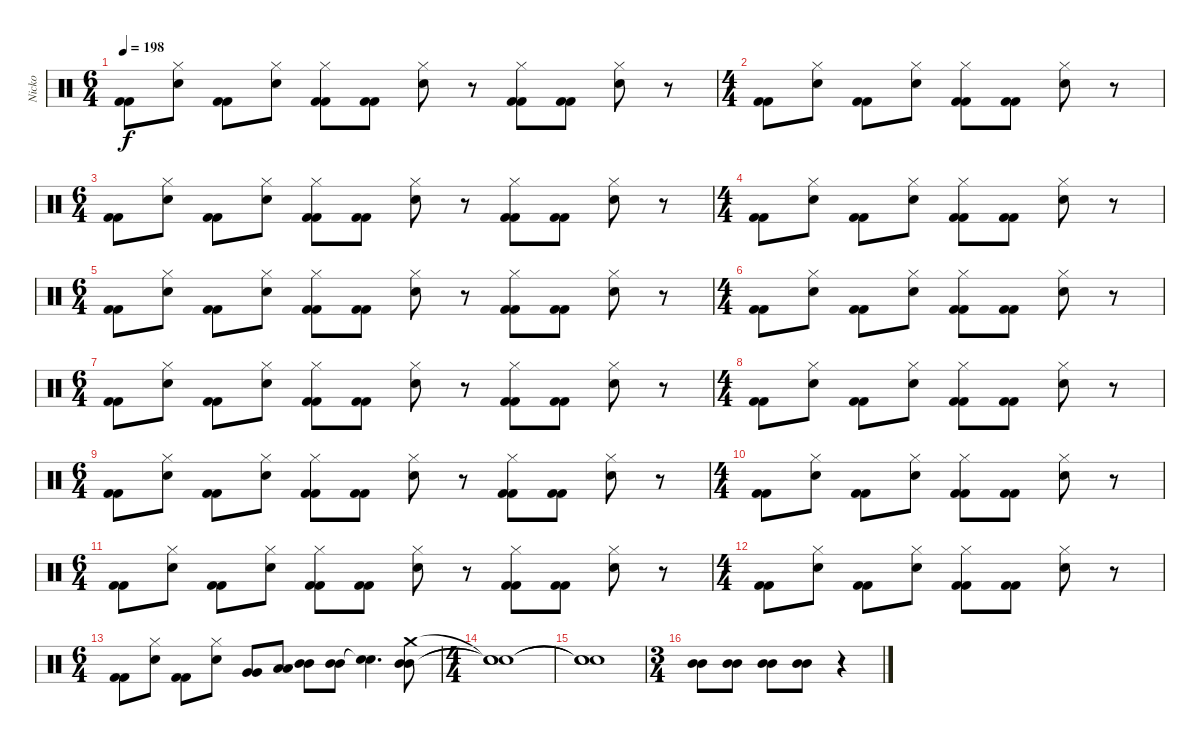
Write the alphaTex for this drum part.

\track ("Nicko" "Nicko") {instrument percussion}
\staff {score}
\articulation defaults
\ts (6 4)
\tempo 198
\clef neutral
\ks c
("Kick (hit) 2" "Kick (hit) 2").8{dy f} ("Hi-Hat (closed)" "Electric Snare (hit)").8 ("Kick (hit) 2" "Kick (hit) 2").8 ("Hi-Hat (closed)" "Electric Snare (hit)").8 ("Hi-Hat (closed)" "Kick (hit) 2" "Kick (hit) 2").8 ("Kick (hit) 2" "Kick (hit) 2").8 ("Hi-Hat (closed)" "Electric Snare (hit)").8 r.8 ("Hi-Hat (closed)" "Kick (hit) 2" "Kick (hit) 2").8 ("Kick (hit) 2" "Kick (hit) 2").8 ("Hi-Hat (closed)" "Electric Snare (hit)").8 r.8 |
\ts (4 4)
("Kick (hit) 2" "Kick (hit) 2").8 ("Hi-Hat (closed)" "Electric Snare (hit)").8 ("Kick (hit) 2" "Kick (hit) 2").8 ("Hi-Hat (closed)" "Electric Snare (hit)").8 ("Hi-Hat (closed)" "Kick (hit) 2" "Kick (hit) 2").8 ("Kick (hit) 2" "Kick (hit) 2").8 ("Hi-Hat (closed)" "Electric Snare (hit)").8 r.8 |
\ts (6 4)
("Kick (hit) 2" "Kick (hit) 2").8 ("Hi-Hat (closed)" "Electric Snare (hit)").8 ("Kick (hit) 2" "Kick (hit) 2").8 ("Hi-Hat (closed)" "Electric Snare (hit)").8 ("Hi-Hat (closed)" "Kick (hit) 2" "Kick (hit) 2").8 ("Kick (hit) 2" "Kick (hit) 2").8 ("Hi-Hat (closed)" "Electric Snare (hit)").8 r.8 ("Hi-Hat (closed)" "Kick (hit) 2" "Kick (hit) 2").8 ("Kick (hit) 2" "Kick (hit) 2").8 ("Hi-Hat (closed)" "Electric Snare (hit)").8 r.8 |
\ts (4 4)
("Kick (hit) 2" "Kick (hit) 2").8 ("Hi-Hat (closed)" "Electric Snare (hit)").8 ("Kick (hit) 2" "Kick (hit) 2").8 ("Hi-Hat (closed)" "Electric Snare (hit)").8 ("Hi-Hat (closed)" "Kick (hit) 2" "Kick (hit) 2").8 ("Kick (hit) 2" "Kick (hit) 2").8 ("Hi-Hat (closed)" "Electric Snare (hit)").8 r.8 |
\ts (6 4)
("Kick (hit) 2" "Kick (hit) 2").8 ("Hi-Hat (closed)" "Electric Snare (hit)").8 ("Kick (hit) 2" "Kick (hit) 2").8 ("Hi-Hat (closed)" "Electric Snare (hit)").8 ("Hi-Hat (closed)" "Kick (hit) 2" "Kick (hit) 2").8 ("Kick (hit) 2" "Kick (hit) 2").8 ("Hi-Hat (closed)" "Electric Snare (hit)").8 r.8 ("Hi-Hat (closed)" "Kick (hit) 2" "Kick (hit) 2").8 ("Kick (hit) 2" "Kick (hit) 2").8 ("Hi-Hat (closed)" "Electric Snare (hit)").8 r.8 |
\ts (4 4)
("Kick (hit) 2" "Kick (hit) 2").8 ("Hi-Hat (closed)" "Electric Snare (hit)").8 ("Kick (hit) 2" "Kick (hit) 2").8 ("Hi-Hat (closed)" "Electric Snare (hit)").8 ("Hi-Hat (closed)" "Kick (hit) 2" "Kick (hit) 2").8 ("Kick (hit) 2" "Kick (hit) 2").8 ("Hi-Hat (closed)" "Electric Snare (hit)").8 r.8 |
\ts (6 4)
("Kick (hit) 2" "Kick (hit) 2").8 ("Hi-Hat (closed)" "Electric Snare (hit)").8 ("Kick (hit) 2" "Kick (hit) 2").8 ("Hi-Hat (closed)" "Electric Snare (hit)").8 ("Hi-Hat (closed)" "Kick (hit) 2" "Kick (hit) 2").8 ("Kick (hit) 2" "Kick (hit) 2").8 ("Hi-Hat (closed)" "Electric Snare (hit)").8 r.8 ("Hi-Hat (closed)" "Kick (hit) 2" "Kick (hit) 2").8 ("Kick (hit) 2" "Kick (hit) 2").8 ("Hi-Hat (closed)" "Electric Snare (hit)").8 r.8 |
\ts (4 4)
("Kick (hit) 2" "Kick (hit) 2").8 ("Hi-Hat (closed)" "Electric Snare (hit)").8 ("Kick (hit) 2" "Kick (hit) 2").8 ("Hi-Hat (closed)" "Electric Snare (hit)").8 ("Hi-Hat (closed)" "Kick (hit) 2" "Kick (hit) 2").8 ("Kick (hit) 2" "Kick (hit) 2").8 ("Hi-Hat (closed)" "Electric Snare (hit)").8 r.8 |
\ts (6 4)
("Kick (hit) 2" "Kick (hit) 2").8 ("Hi-Hat (closed)" "Electric Snare (hit)").8 ("Kick (hit) 2" "Kick (hit) 2").8 ("Hi-Hat (closed)" "Electric Snare (hit)").8 ("Hi-Hat (closed)" "Kick (hit) 2" "Kick (hit) 2").8 ("Kick (hit) 2" "Kick (hit) 2").8 ("Hi-Hat (closed)" "Electric Snare (hit)").8 r.8 ("Hi-Hat (closed)" "Kick (hit) 2" "Kick (hit) 2").8 ("Kick (hit) 2" "Kick (hit) 2").8 ("Hi-Hat (closed)" "Electric Snare (hit)").8 r.8 |
\ts (4 4)
("Kick (hit) 2" "Kick (hit) 2").8 ("Hi-Hat (closed)" "Electric Snare (hit)").8 ("Kick (hit) 2" "Kick (hit) 2").8 ("Hi-Hat (closed)" "Electric Snare (hit)").8 ("Hi-Hat (closed)" "Kick (hit) 2" "Kick (hit) 2").8 ("Kick (hit) 2" "Kick (hit) 2").8 ("Hi-Hat (closed)" "Electric Snare (hit)").8 r.8 |
\ts (6 4)
("Kick (hit) 2" "Kick (hit) 2").8 ("Hi-Hat (closed)" "Electric Snare (hit)").8 ("Kick (hit) 2" "Kick (hit) 2").8 ("Hi-Hat (closed)" "Electric Snare (hit)").8 ("Hi-Hat (closed)" "Kick (hit) 2" "Kick (hit) 2").8 ("Kick (hit) 2" "Kick (hit) 2").8 ("Hi-Hat (closed)" "Electric Snare (hit)").8 r.8 ("Hi-Hat (closed)" "Kick (hit) 2" "Kick (hit) 2").8 ("Kick (hit) 2" "Kick (hit) 2").8 ("Hi-Hat (closed)" "Electric Snare (hit)").8 r.8 |
\ts (4 4)
("Kick (hit) 2" "Kick (hit) 2").8 ("Hi-Hat (closed)" "Electric Snare (hit)").8 ("Kick (hit) 2" "Kick (hit) 2").8 ("Hi-Hat (closed)" "Electric Snare (hit)").8 ("Hi-Hat (closed)" "Kick (hit) 2" "Kick (hit) 2").8 ("Kick (hit) 2" "Kick (hit) 2").8 ("Hi-Hat (closed)" "Electric Snare (hit)").8 r.8 |
\ts (6 4)
("Kick (hit) 2" "Kick (hit) 2").8 ("Hi-Hat (closed)" "Electric Snare (hit)").8 ("Kick (hit) 2" "Kick (hit) 2").8 ("Hi-Hat (closed)" "Electric Snare (hit)").8 ("Very Low Tom (hit)" "Very Low Tom (hit)").8 ("Low Tom (hit)" "Low Tom (hit)").8 ("Mid Tom (hit)" "Mid Tom (hit)").8 ("Mid Tom (hit)" "Mid Tom (hit)").8 ("Snare (hit)"{t} "Snare (hit)"{t}).4{d} ("Crash medium (hit)" "Mid Tom (hit)" "Mid Tom (hit)").8 |
\ts (4 4)
("Snare (hit)"{t} "Snare (hit)"{t} "Snare (hit)"{t}).1 |
("Snare (hit)"{t} "Snare (hit)"{t} "Snare (hit)"{t}).1 |
\ts (3 4)
("Mid Tom (hit)" "Mid Tom (hit)").8 ("Mid Tom (hit)" "Mid Tom (hit)").8 ("Mid Tom (hit)" "Mid Tom (hit)").8 ("Mid Tom (hit)" "Mid Tom (hit)").8 r.4
